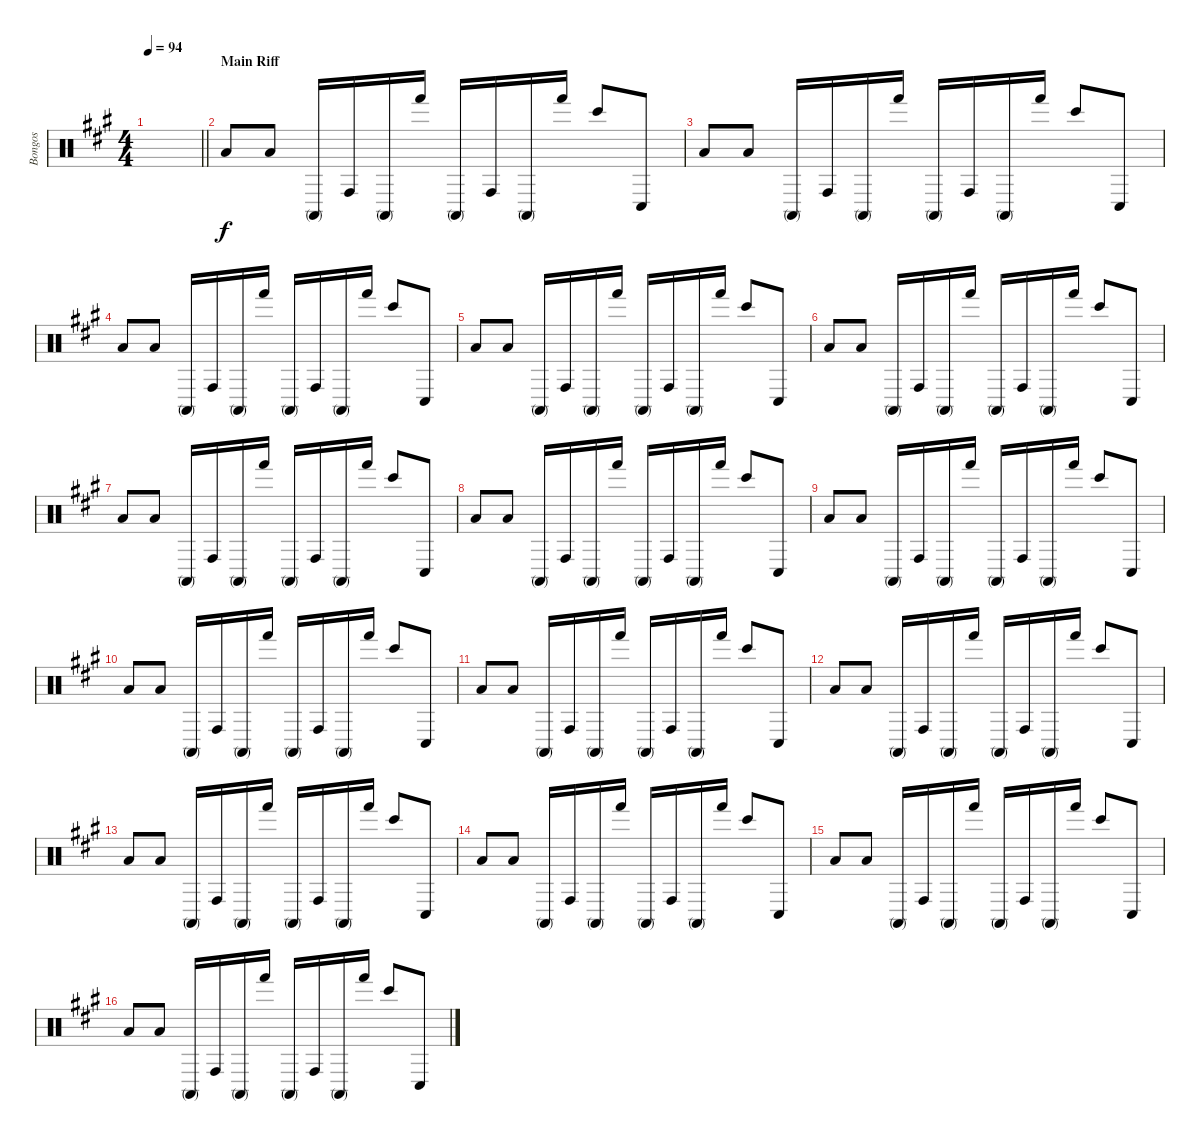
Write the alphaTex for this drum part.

\track ("Bongos" "Bongos") {instrument percussion}
\staff {score}
\articulation defaults
\ts (4 4)
\tempo 94
\clef neutral
\barLineRight lightlight
\ks a
|
\section ("" "Main Riff")
"Low Floor Tom (hit)".8{volume 8} "Low Floor Tom (hit)".8 "Conga high (mute)".16 "Conga high (hit)".16 "Conga high (mute)".16 "Hand (hit)".16 "Conga high (mute)".16 "Conga high (hit)".16 "Conga high (mute)".16 "Hand (hit)".16 "Bongo High (hit)".8 "Conga low (hit)".8 |
"Low Floor Tom (hit)".8 "Low Floor Tom (hit)".8 "Conga high (mute)".16 "Conga high (hit)".16 "Conga high (mute)".16 "Hand (hit)".16 "Conga high (mute)".16 "Conga high (hit)".16 "Conga high (mute)".16 "Hand (hit)".16 "Bongo High (hit)".8 "Conga low (hit)".8 |
"Low Floor Tom (hit)".8 "Low Floor Tom (hit)".8 "Conga high (mute)".16 "Conga high (hit)".16 "Conga high (mute)".16 "Hand (hit)".16 "Conga high (mute)".16 "Conga high (hit)".16 "Conga high (mute)".16 "Hand (hit)".16 "Bongo High (hit)".8 "Conga low (hit)".8 |
"Low Floor Tom (hit)".8 "Low Floor Tom (hit)".8 "Conga high (mute)".16 "Conga high (hit)".16 "Conga high (mute)".16 "Hand (hit)".16 "Conga high (mute)".16 "Conga high (hit)".16 "Conga high (mute)".16 "Hand (hit)".16 "Bongo High (hit)".8 "Conga low (hit)".8 |
"Low Floor Tom (hit)".8 "Low Floor Tom (hit)".8 "Conga high (mute)".16 "Conga high (hit)".16 "Conga high (mute)".16 "Hand (hit)".16 "Conga high (mute)".16 "Conga high (hit)".16 "Conga high (mute)".16 "Hand (hit)".16 "Bongo High (hit)".8 "Conga low (hit)".8 |
"Low Floor Tom (hit)".8 "Low Floor Tom (hit)".8 "Conga high (mute)".16 "Conga high (hit)".16 "Conga high (mute)".16 "Hand (hit)".16 "Conga high (mute)".16 "Conga high (hit)".16 "Conga high (mute)".16 "Hand (hit)".16 "Bongo High (hit)".8 "Conga low (hit)".8 |
"Low Floor Tom (hit)".8 "Low Floor Tom (hit)".8 "Conga high (mute)".16 "Conga high (hit)".16 "Conga high (mute)".16 "Hand (hit)".16 "Conga high (mute)".16 "Conga high (hit)".16 "Conga high (mute)".16 "Hand (hit)".16 "Bongo High (hit)".8 "Conga low (hit)".8 |
"Low Floor Tom (hit)".8 "Low Floor Tom (hit)".8 "Conga high (mute)".16 "Conga high (hit)".16 "Conga high (mute)".16 "Hand (hit)".16 "Conga high (mute)".16 "Conga high (hit)".16 "Conga high (mute)".16 "Hand (hit)".16 "Bongo High (hit)".8 "Conga low (hit)".8 |
"Low Floor Tom (hit)".8 "Low Floor Tom (hit)".8 "Conga high (mute)".16 "Conga high (hit)".16 "Conga high (mute)".16 "Hand (hit)".16 "Conga high (mute)".16 "Conga high (hit)".16 "Conga high (mute)".16 "Hand (hit)".16 "Bongo High (hit)".8 "Conga low (hit)".8 |
"Low Floor Tom (hit)".8{volume 8} "Low Floor Tom (hit)".8 "Conga high (mute)".16 "Conga high (hit)".16 "Conga high (mute)".16 "Hand (hit)".16 "Conga high (mute)".16 "Conga high (hit)".16 "Conga high (mute)".16 "Hand (hit)".16 "Bongo High (hit)".8 "Conga low (hit)".8 |
"Low Floor Tom (hit)".8 "Low Floor Tom (hit)".8 "Conga high (mute)".16 "Conga high (hit)".16 "Conga high (mute)".16 "Hand (hit)".16 "Conga high (mute)".16 "Conga high (hit)".16 "Conga high (mute)".16 "Hand (hit)".16 "Bongo High (hit)".8 "Conga low (hit)".8 |
"Low Floor Tom (hit)".8 "Low Floor Tom (hit)".8 "Conga high (mute)".16 "Conga high (hit)".16 "Conga high (mute)".16 "Hand (hit)".16 "Conga high (mute)".16 "Conga high (hit)".16 "Conga high (mute)".16 "Hand (hit)".16 "Bongo High (hit)".8 "Conga low (hit)".8 |
"Low Floor Tom (hit)".8 "Low Floor Tom (hit)".8 "Conga high (mute)".16 "Conga high (hit)".16 "Conga high (mute)".16 "Hand (hit)".16 "Conga high (mute)".16 "Conga high (hit)".16 "Conga high (mute)".16 "Hand (hit)".16 "Bongo High (hit)".8 "Conga low (hit)".8 |
"Low Floor Tom (hit)".8 "Low Floor Tom (hit)".8 "Conga high (mute)".16 "Conga high (hit)".16 "Conga high (mute)".16 "Hand (hit)".16 "Conga high (mute)".16 "Conga high (hit)".16 "Conga high (mute)".16 "Hand (hit)".16 "Bongo High (hit)".8 "Conga low (hit)".8 |
"Low Floor Tom (hit)".8 "Low Floor Tom (hit)".8 "Conga high (mute)".16 "Conga high (hit)".16 "Conga high (mute)".16 "Hand (hit)".16 "Conga high (mute)".16 "Conga high (hit)".16 "Conga high (mute)".16 "Hand (hit)".16 "Bongo High (hit)".8 "Conga low (hit)".8
